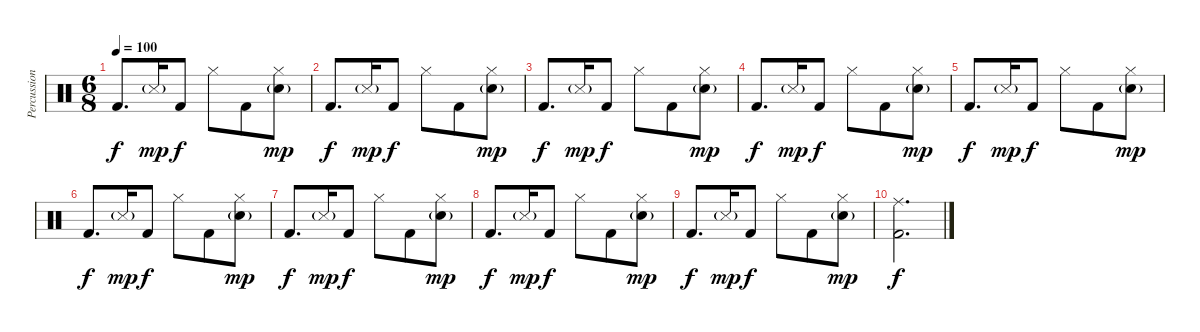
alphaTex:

\track ("Percussion" "Percussion") {instrument percussion}
\staff {score}
\articulation defaults
\ts (6 8)
\tempo 100
\clef neutral
\ks c "Kick (hit) 2".8{d dy f} "Snare (side stick) 3"{g}.16{dy mp} "Kick (hit) 2".8{dy f} "Hi-Hat (closed)".8 "Kick (hit) 2".8
("Hi-Hat (closed)" "Snare (hit) 2"{g}).8{dy mp} |
"Kick (hit) 2".8{d dy f} "Snare (side stick) 3"{g}.16{dy mp} "Kick (hit) 2".8{dy f} "Hi-Hat (closed)".8 "Kick (hit) 2".8 ("Hi-Hat (closed)" "Snare (hit) 2"{g}).8{dy mp} |
"Kick (hit) 2".8{d dy f} "Snare (side stick) 3"{g}.16{dy mp} "Kick (hit) 2".8{dy f} "Hi-Hat (closed)".8 "Kick (hit) 2".8 ("Hi-Hat (closed)" "Snare (hit) 2"{g}).8{dy mp} |
"Kick (hit) 2".8{d dy f} "Snare (side stick) 3"{g}.16{dy mp} "Kick (hit) 2".8{dy f} "Hi-Hat (closed)".8 "Kick (hit) 2".8 ("Hi-Hat (closed)" "Snare (hit) 2"{g}).8{dy mp} |
"Kick (hit) 2".8{d dy f} "Snare (side stick) 3"{g}.16{dy mp} "Kick (hit) 2".8{dy f} "Hi-Hat (closed)".8 "Kick (hit) 2".8 ("Hi-Hat (closed)" "Snare (hit) 2"{g}).8{dy mp} |
"Kick (hit) 2".8{d dy f} "Snare (side stick) 3"{g}.16{dy mp} "Kick (hit) 2".8{dy f} "Hi-Hat (closed)".8 "Kick (hit) 2".8 ("Hi-Hat (closed)" "Snare (hit) 2"{g}).8{dy mp} |
"Kick (hit) 2".8{d dy f} "Snare (side stick) 3"{g}.16{dy mp} "Kick (hit) 2".8{dy f} "Hi-Hat (closed)".8 "Kick (hit) 2".8 ("Hi-Hat (closed)" "Snare (hit) 2"{g}).8{dy mp} |
"Kick (hit) 2".8{d dy f} "Snare (side stick) 3"{g}.16{dy mp} "Kick (hit) 2".8{dy f} "Hi-Hat (closed)".8 "Kick (hit) 2".8 ("Hi-Hat (closed)" "Snare (hit) 2"{g}).8{dy mp} |
"Kick (hit) 2".8{d dy f} "Snare (side stick) 3"{g}.16{dy mp} "Kick (hit) 2".8{dy f} "Hi-Hat (closed)".8 "Kick (hit) 2".8 ("Hi-Hat (closed)" "Snare (hit) 2"{g}).8{dy mp} |
("Ride (middle)" "Kick (hit) 2").2{d dy f}
